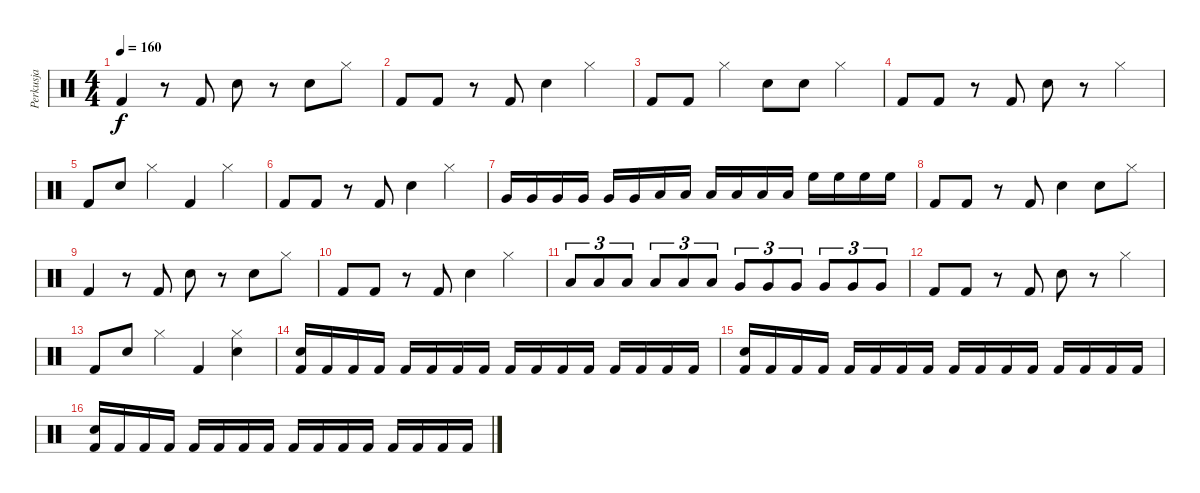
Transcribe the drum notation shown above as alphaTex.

\track ("Perkusja" "Perkusja") {instrument percussion}
\staff {score}
\articulation defaults
\ts (4 4)
\tempo 160
\clef neutral
\ks c "Kick (hit) 2".4{dy f}
r.8 "Kick (hit) 2".8 "Snare (hit) 2".8 r.8 "Snare (hit) 2".8 "Hi-Hat (closed)".8 |
"Kick (hit) 2".8 "Kick (hit) 2".8 r.8 "Kick (hit) 2".8 "Snare (hit) 2".4 "Hi-Hat (closed)".4 |
"Kick (hit) 2".8 "Kick (hit) 2".8 "Hi-Hat (closed)".4 "Snare (hit) 2".8 "Snare (hit) 2".8 "Hi-Hat (closed)".4 |
"Kick (hit) 2".8 "Kick (hit) 2".8 r.8 "Kick (hit) 2".8 "Snare (hit) 2".8 r.8 "Hi-Hat (closed)".4 |
"Kick (hit) 2".8 "Snare (hit) 2".8 "Hi-Hat (closed)".4 "Kick (hit) 2".4 "Hi-Hat (closed)".4 |
"Kick (hit) 2".8 "Kick (hit) 2".8 r.8 "Kick (hit) 2".8 "Snare (hit) 2".4 "Hi-Hat (closed)".4 |
"Very Low Tom (hit)".16 "Very Low Tom (hit)".16 "Very Low Tom (hit)".16 "Very Low Tom (hit)".16 "Very Low Tom (hit)".16 "Very Low Tom (hit)".16 "Low Tom (hit)".16 "Low Tom (hit)".16 "Low Tom (hit)".16 "Low Tom (hit)".16 "Low Tom (hit)".16 "Low Tom (hit)".16 "High Floor Tom (hit)".16 "High Floor Tom (hit)".16 "High Floor Tom (hit)".16 "High Floor Tom (hit)".16 |
"Kick (hit) 2".8 "Kick (hit) 2".8 r.8 "Kick (hit) 2".8 "Snare (hit) 2".4 "Snare (hit) 2".8 "Hi-Hat (closed)".8 |
"Kick (hit) 2".4 r.8 "Kick (hit) 2".8 "Snare (hit) 2".8 r.8 "Snare (hit) 2".8 "Hi-Hat (closed)".8 |
"Kick (hit) 2".8 "Kick (hit) 2".8 r.8 "Kick (hit) 2".8 "Snare (hit) 2".4 "Hi-Hat (closed)".4 |
"Low Floor Tom (hit)".8{tu (3 2)} "Low Floor Tom (hit)".8{tu (3 2)} "Low Floor Tom (hit)".8{tu (3 2)} "Low Floor Tom (hit)".8{tu (3 2)} "Low Floor Tom (hit)".8{tu (3 2)} "Low Floor Tom (hit)".8{tu (3 2)} "Very Low Tom (hit)".8{tu (3 2)} "Very Low Tom (hit)".8{tu (3 2)} "Very Low Tom (hit)".8{tu (3 2)} "Very Low Tom (hit)".8{tu (3 2)} "Very Low Tom (hit)".8{tu (3 2)} "Very Low Tom (hit)".8{tu (3 2)} |
"Kick (hit) 2".8 "Kick (hit) 2".8 r.8 "Kick (hit) 2".8 "Snare (hit) 2".8 r.8 "Hi-Hat (closed)".4 |
"Kick (hit) 2".8 "Snare (hit) 2".8 "Hi-Hat (closed)".4 "Kick (hit) 2".4 ("Snare (hit) 2" "Hi-Hat (closed)").4 |
("Snare (hit) 2" "Kick (hit) 2").16 "Kick (hit) 2".16 "Kick (hit) 2".16 "Kick (hit) 2".16 "Kick (hit) 2".16 "Kick (hit) 2".16 "Kick (hit) 2".16 "Kick (hit) 2".16 "Kick (hit) 2".16 "Kick (hit) 2".16 "Kick (hit) 2".16 "Kick (hit) 2".16 "Kick (hit) 2".16 "Kick (hit) 2".16 "Kick (hit) 2".16 "Kick (hit) 2".16 |
("Snare (hit) 2" "Kick (hit) 2").16 "Kick (hit) 2".16 "Kick (hit) 2".16 "Kick (hit) 2".16 "Kick (hit) 2".16 "Kick (hit) 2".16 "Kick (hit) 2".16 "Kick (hit) 2".16 "Kick (hit) 2".16 "Kick (hit) 2".16 "Kick (hit) 2".16 "Kick (hit) 2".16 "Kick (hit) 2".16 "Kick (hit) 2".16 "Kick (hit) 2".16 "Kick (hit) 2".16 |
("Snare (hit) 2" "Kick (hit) 2").16 "Kick (hit) 2".16 "Kick (hit) 2".16 "Kick (hit) 2".16 "Kick (hit) 2".16 "Kick (hit) 2".16 "Kick (hit) 2".16 "Kick (hit) 2".16 "Kick (hit) 2".16 "Kick (hit) 2".16 "Kick (hit) 2".16 "Kick (hit) 2".16 "Kick (hit) 2".16 "Kick (hit) 2".16 "Kick (hit) 2".16 "Kick (hit) 2".16
